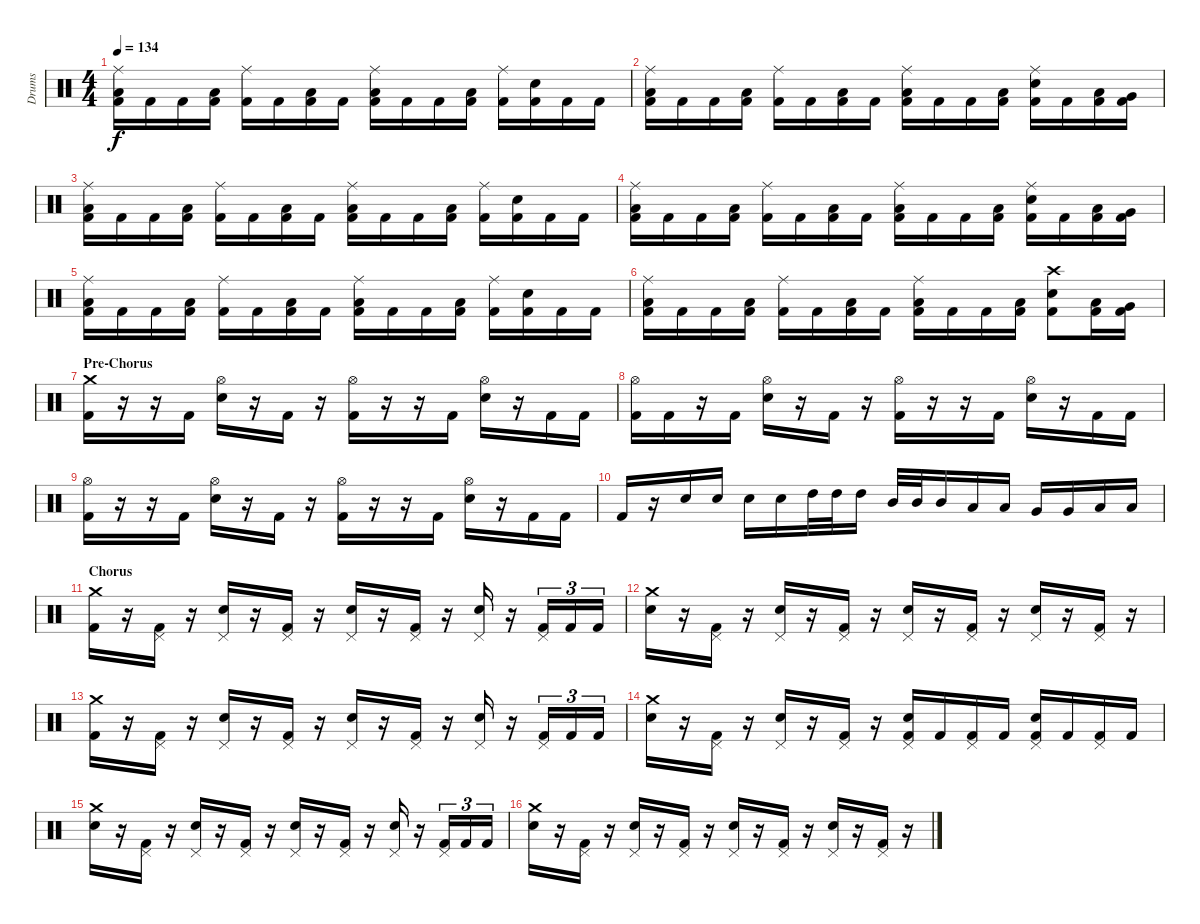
\track ("Drums" "Drums") {instrument percussion}
\staff {score}
\articulation defaults
\ts (4 4)
\tempo 134
\clef neutral
\ks c
("Ride (middle)" "Low Floor Tom (hit)" "Kick (hit) 2").16{dy f} "Kick (hit) 2".16 "Kick (hit) 2".16 ("Low Floor Tom (hit)" "Kick (hit) 2").16 ("Ride (middle)" "Kick (hit) 2").16 "Kick (hit) 2".16 ("Low Floor Tom (hit)" "Kick (hit) 2").16 "Kick (hit) 2".16 ("Ride (middle)" "Low Floor Tom (hit)" "Kick (hit) 2").16 "Kick (hit) 2".16 "Kick (hit) 2".16 ("Low Floor Tom (hit)" "Kick (hit) 2").16 ("Ride (middle)" "Kick (hit) 2").16 ("Electric Snare (hit)" "Kick (hit) 2").16 "Kick (hit) 2".16 "Kick (hit) 2".16 |
("Ride (middle)" "Low Floor Tom (hit)" "Kick (hit) 2").16 "Kick (hit) 2".16 "Kick (hit) 2".16 ("Low Floor Tom (hit)" "Kick (hit) 2").16 ("Ride (middle)" "Kick (hit) 2").16 "Kick (hit) 2".16 ("Low Floor Tom (hit)" "Kick (hit) 2").16 "Kick (hit) 2".16 ("Ride (middle)" "Low Floor Tom (hit)" "Kick (hit) 2").16 "Kick (hit) 2".16 "Kick (hit) 2".16 ("Low Floor Tom (hit)" "Kick (hit) 2").16 ("Ride (middle)" "Electric Snare (hit)" "Kick (hit) 2").16 "Kick (hit) 2".16 ("Low Tom (hit)" "Kick (hit) 2").16 ("Very Low Tom (hit)" "Kick (hit) 2").16 |
("Ride (middle)" "Low Floor Tom (hit)" "Kick (hit) 2").16 "Kick (hit) 2".16 "Kick (hit) 2".16 ("Low Floor Tom (hit)" "Kick (hit) 2").16 ("Ride (middle)" "Kick (hit) 2").16 "Kick (hit) 2".16 ("Low Floor Tom (hit)" "Kick (hit) 2").16 "Kick (hit) 2".16 ("Ride (middle)" "Low Floor Tom (hit)" "Kick (hit) 2").16 "Kick (hit) 2".16 "Kick (hit) 2".16 ("Low Floor Tom (hit)" "Kick (hit) 2").16 ("Ride (middle)" "Kick (hit) 2").16 ("Electric Snare (hit)" "Kick (hit) 2").16 "Kick (hit) 2".16 "Kick (hit) 2".16 |
("Ride (middle)" "Low Floor Tom (hit)" "Kick (hit) 2").16 "Kick (hit) 2".16 "Kick (hit) 2".16 ("Low Floor Tom (hit)" "Kick (hit) 2").16 ("Ride (middle)" "Kick (hit) 2").16 "Kick (hit) 2".16 ("Low Floor Tom (hit)" "Kick (hit) 2").16 "Kick (hit) 2".16 ("Ride (middle)" "Low Floor Tom (hit)" "Kick (hit) 2").16 "Kick (hit) 2".16 "Kick (hit) 2".16 ("Low Floor Tom (hit)" "Kick (hit) 2").16 ("Ride (middle)" "Electric Snare (hit)" "Kick (hit) 2").16 "Kick (hit) 2".16 ("Low Tom (hit)" "Kick (hit) 2").16 ("Very Low Tom (hit)" "Kick (hit) 2").16 |
("Ride (middle)" "Low Floor Tom (hit)" "Kick (hit) 2").16 "Kick (hit) 2".16 "Kick (hit) 2".16 ("Low Floor Tom (hit)" "Kick (hit) 2").16 ("Ride (middle)" "Kick (hit) 2").16 "Kick (hit) 2".16 ("Low Floor Tom (hit)" "Kick (hit) 2").16 "Kick (hit) 2".16 ("Ride (middle)" "Low Floor Tom (hit)" "Kick (hit) 2").16 "Kick (hit) 2".16 "Kick (hit) 2".16 ("Low Floor Tom (hit)" "Kick (hit) 2").16 ("Ride (middle)" "Kick (hit) 2").16 ("Electric Snare (hit)" "Kick (hit) 2").16 "Kick (hit) 2".16 "Kick (hit) 2".16 |
("Ride (middle)" "Low Floor Tom (hit)" "Kick (hit) 2").16 "Kick (hit) 2".16 "Kick (hit) 2".16 ("Low Floor Tom (hit)" "Kick (hit) 2").16 ("Ride (middle)" "Kick (hit) 2").16 "Kick (hit) 2".16 ("Low Floor Tom (hit)" "Kick (hit) 2").16 "Kick (hit) 2".16 ("Ride (middle)" "Low Floor Tom (hit)" "Kick (hit) 2").16 "Kick (hit) 2".16 "Kick (hit) 2".16 ("Low Floor Tom (hit)" "Kick (hit) 2").16 ("Crash high (hit)" "Electric Snare (hit)" "Kick (hit) 2").8 ("Low Tom (hit)" "Kick (hit) 2").16 ("Very Low Tom (hit)" "Kick (hit) 2").16 |
\section ("" "Pre-Chorus")
("Crash medium (hit)" "Kick (hit) 2").16 r.16 r.16 "Kick (hit) 2".16 ("Hi-Hat (open)" "Electric Snare (hit)").16 r.16 "Kick (hit) 2".16 r.16 ("Hi-Hat (open)" "Kick (hit) 2").16 r.16 r.16 "Kick (hit) 2".16 ("Hi-Hat (open)" "Electric Snare (hit)").16 r.16 "Kick (hit) 2".16 "Kick (hit) 2".16 |
("Hi-Hat (open)" "Kick (hit) 2").16 "Kick (hit) 2".16 r.16 "Kick (hit) 2".16 ("Hi-Hat (open)" "Electric Snare (hit)").16 r.16 "Kick (hit) 2".16 r.16 ("Hi-Hat (open)" "Kick (hit) 2").16 r.16 r.16 "Kick (hit) 2".16 ("Hi-Hat (open)" "Electric Snare (hit)").16 r.16 "Kick (hit) 2".16 "Kick (hit) 2".16 |
("Hi-Hat (open)" "Kick (hit) 2").16 r.16 r.16 "Kick (hit) 2".16 ("Hi-Hat (open)" "Electric Snare (hit)").16 r.16 "Kick (hit) 2".16 r.16 ("Hi-Hat (open)" "Kick (hit) 2").16 r.16 r.16 "Kick (hit) 2".16 ("Hi-Hat (open)" "Electric Snare (hit)").16 r.16 "Kick (hit) 2".16 "Kick (hit) 2".16 |
"Kick (hit) 2".16 r.16 "Electric Snare (hit)".16 "Electric Snare (hit)".16 "Electric Snare (hit)".16 "Electric Snare (hit)".16 "High Tom (hit)".32 "High Tom (hit)".32 "High Tom (hit)".16 "Mid Tom (hit)".32 "Mid Tom (hit)".32 "Mid Tom (hit)".16 "Low Tom (hit)".16 "Low Tom (hit)".16 "Very Low Tom (hit)".16 "Very Low Tom (hit)".16 "Low Floor Tom (hit)".16 "Low Floor Tom (hit)".16 |
\section ("" "Chorus")
("Crash medium (hit)" "Kick (hit) 2").16 r.16 ("Pedal Hi-Hat (hit)" "Kick (hit) 2").16 r.16 ("Pedal Hi-Hat (hit)" "Electric Snare (hit)").16 r.16 ("Pedal Hi-Hat (hit)" "Kick (hit) 2").16 r.16 ("Pedal Hi-Hat (hit)" "Electric Snare (hit)").16 r.16 ("Pedal Hi-Hat (hit)" "Kick (hit) 2").16 r.16 ("Pedal Hi-Hat (hit)" "Electric Snare (hit)").16 r.16 ("Pedal Hi-Hat (hit)" "Kick (hit) 2").16{tu (3 2)} "Kick (hit) 2".16{tu (3 2)} "Kick (hit) 2".16{tu (3 2)} |
("Crash medium (hit)" "Electric Snare (hit)").16 r.16 ("Pedal Hi-Hat (hit)" "Kick (hit) 2").16 r.16 ("Pedal Hi-Hat (hit)" "Electric Snare (hit)").16 r.16 ("Pedal Hi-Hat (hit)" "Kick (hit) 2").16 r.16 ("Pedal Hi-Hat (hit)" "Electric Snare (hit)").16 r.16 ("Pedal Hi-Hat (hit)" "Kick (hit) 2").16 r.16 ("Pedal Hi-Hat (hit)" "Electric Snare (hit)").16 r.16 ("Pedal Hi-Hat (hit)" "Kick (hit) 2").16 r.16 |
("Crash medium (hit)" "Kick (hit) 2").16 r.16 ("Pedal Hi-Hat (hit)" "Kick (hit) 2").16 r.16 ("Pedal Hi-Hat (hit)" "Electric Snare (hit)").16 r.16 ("Pedal Hi-Hat (hit)" "Kick (hit) 2").16 r.16 ("Pedal Hi-Hat (hit)" "Electric Snare (hit)").16 r.16 ("Pedal Hi-Hat (hit)" "Kick (hit) 2").16 r.16 ("Pedal Hi-Hat (hit)" "Electric Snare (hit)").16 r.16 ("Pedal Hi-Hat (hit)" "Kick (hit) 2").16{tu (3 2)} "Kick (hit) 2".16{tu (3 2)} "Kick (hit) 2".16{tu (3 2)} |
("Crash medium (hit)" "Electric Snare (hit)").16 r.16 ("Pedal Hi-Hat (hit)" "Kick (hit) 2").16 r.16 ("Pedal Hi-Hat (hit)" "Electric Snare (hit)").16 r.16 ("Pedal Hi-Hat (hit)" "Kick (hit) 2").16 r.16 ("Pedal Hi-Hat (hit)" "Electric Snare (hit)" "Kick (hit) 2").16 "Kick (hit) 2".16 ("Pedal Hi-Hat (hit)" "Kick (hit) 2").16 "Kick (hit) 2".16 ("Pedal Hi-Hat (hit)" "Electric Snare (hit)" "Kick (hit) 2").16 "Kick (hit) 2".16 ("Pedal Hi-Hat (hit)" "Kick (hit) 2").16 "Kick (hit) 2".16 |
("Crash medium (hit)" "Electric Snare (hit)").16 r.16 ("Pedal Hi-Hat (hit)" "Kick (hit) 2").16 r.16 ("Pedal Hi-Hat (hit)" "Electric Snare (hit)").16 r.16 ("Pedal Hi-Hat (hit)" "Kick (hit) 2").16 r.16 ("Pedal Hi-Hat (hit)" "Electric Snare (hit)").16 r.16 ("Pedal Hi-Hat (hit)" "Kick (hit) 2").16 r.16 ("Pedal Hi-Hat (hit)" "Electric Snare (hit)").16 r.16 ("Pedal Hi-Hat (hit)" "Kick (hit) 2").16{tu (3 2)} "Kick (hit) 2".16{tu (3 2)} "Kick (hit) 2".16{tu (3 2)} |
("Crash medium (hit)" "Electric Snare (hit)").16 r.16 ("Pedal Hi-Hat (hit)" "Kick (hit) 2").16 r.16 ("Pedal Hi-Hat (hit)" "Electric Snare (hit)").16 r.16 ("Pedal Hi-Hat (hit)" "Kick (hit) 2").16 r.16 ("Pedal Hi-Hat (hit)" "Electric Snare (hit)").16 r.16 ("Pedal Hi-Hat (hit)" "Kick (hit) 2").16 r.16 ("Pedal Hi-Hat (hit)" "Electric Snare (hit)").16 r.16 ("Pedal Hi-Hat (hit)" "Kick (hit) 2").16 r.16
